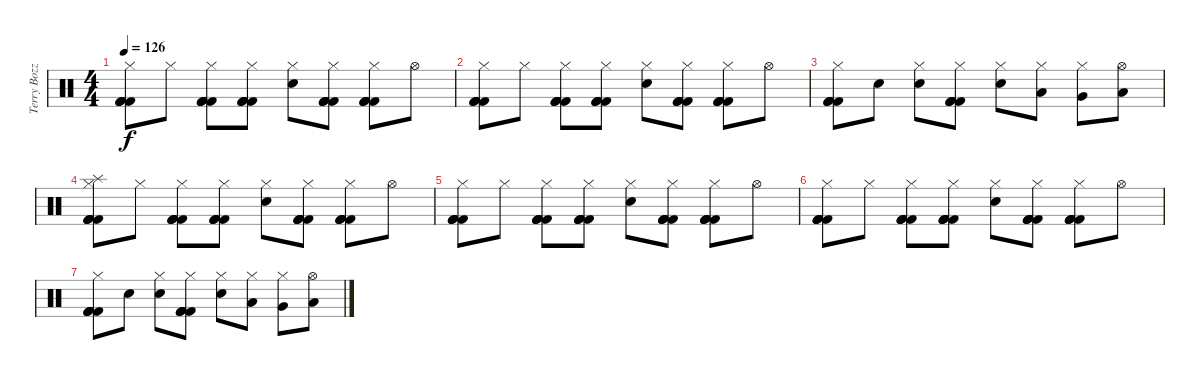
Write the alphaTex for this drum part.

\track ("Terry Bozzio" "Terry Bozz") {instrument percussion}
\staff {score}
\articulation defaults
\ts (4 4)
\tempo 126
\clef neutral
\ks c
("Hi-Hat (closed)" "Kick (hit) 2" "Kick (hit) 2" "Kick (hit) 2" "Kick (hit) 2").8{dy f} "Hi-Hat (closed)".8 ("Hi-Hat (closed)" "Kick (hit) 2" "Kick (hit) 2" "Kick (hit) 2" "Kick (hit) 2").8 ("Hi-Hat (closed)" "Kick (hit) 2" "Kick (hit) 2" "Kick (hit) 2" "Kick (hit) 2").8 ("Hi-Hat (closed)" "Snare (hit) 2").8 ("Hi-Hat (closed)" "Kick (hit) 2" "Kick (hit) 2" "Kick (hit) 2" "Kick (hit) 2").8 ("Hi-Hat (closed)" "Kick (hit) 2" "Kick (hit) 2" "Kick (hit) 2" "Kick (hit) 2").8 "Hi-Hat (open)".8 |
("Hi-Hat (closed)" "Kick (hit) 2" "Kick (hit) 2" "Kick (hit) 2" "Kick (hit) 2").8 "Hi-Hat (closed)".8 ("Hi-Hat (closed)" "Kick (hit) 2" "Kick (hit) 2" "Kick (hit) 2" "Kick (hit) 2").8 ("Hi-Hat (closed)" "Kick (hit) 2" "Kick (hit) 2" "Kick (hit) 2" "Kick (hit) 2").8 ("Hi-Hat (closed)" "Snare (hit) 2").8 ("Hi-Hat (closed)" "Kick (hit) 2" "Kick (hit) 2" "Kick (hit) 2" "Kick (hit) 2").8 ("Hi-Hat (closed)" "Kick (hit) 2" "Kick (hit) 2" "Kick (hit) 2" "Kick (hit) 2").8 "Hi-Hat (open)".8 |
("Hi-Hat (closed)" "Kick (hit) 2" "Kick (hit) 2" "Kick (hit) 2" "Kick (hit) 2").8 "Snare (hit) 2".8 ("Hi-Hat (closed)" "Snare (hit) 2").8 ("Hi-Hat (closed)" "Kick (hit) 2" "Kick (hit) 2" "Kick (hit) 2" "Kick (hit) 2").8 ("Hi-Hat (closed)" "Snare (hit) 2").8 ("Hi-Hat (closed)" "Low Tom (hit)").8 ("Hi-Hat (closed)" "Very Low Tom (hit)").8 ("Hi-Hat (open)" "Low Floor Tom (hit)").8 |
("Splash (hit)" "Hi-Hat (closed)" "Kick (hit) 2" "Kick (hit) 2" "Kick (hit) 2" "Kick (hit) 2").8{volume 16} "Hi-Hat (closed)".8 ("Hi-Hat (closed)" "Kick (hit) 2" "Kick (hit) 2" "Kick (hit) 2" "Kick (hit) 2").8 ("Hi-Hat (closed)" "Kick (hit) 2" "Kick (hit) 2" "Kick (hit) 2" "Kick (hit) 2").8 ("Hi-Hat (closed)" "Snare (hit) 2").8 ("Hi-Hat (closed)" "Kick (hit) 2" "Kick (hit) 2" "Kick (hit) 2" "Kick (hit) 2").8 ("Hi-Hat (closed)" "Kick (hit) 2" "Kick (hit) 2" "Kick (hit) 2" "Kick (hit) 2").8 "Hi-Hat (open)".8 |
("Hi-Hat (closed)" "Kick (hit) 2" "Kick (hit) 2" "Kick (hit) 2" "Kick (hit) 2").8 "Hi-Hat (closed)".8 ("Hi-Hat (closed)" "Kick (hit) 2" "Kick (hit) 2" "Kick (hit) 2" "Kick (hit) 2").8 ("Hi-Hat (closed)" "Kick (hit) 2" "Kick (hit) 2" "Kick (hit) 2" "Kick (hit) 2").8 ("Hi-Hat (closed)" "Snare (hit) 2").8 ("Hi-Hat (closed)" "Kick (hit) 2" "Kick (hit) 2" "Kick (hit) 2" "Kick (hit) 2").8 ("Hi-Hat (closed)" "Kick (hit) 2" "Kick (hit) 2" "Kick (hit) 2" "Kick (hit) 2").8 "Hi-Hat (open)".8 |
("Hi-Hat (closed)" "Kick (hit) 2" "Kick (hit) 2" "Kick (hit) 2" "Kick (hit) 2").8 "Hi-Hat (closed)".8 ("Hi-Hat (closed)" "Kick (hit) 2" "Kick (hit) 2" "Kick (hit) 2" "Kick (hit) 2").8 ("Hi-Hat (closed)" "Kick (hit) 2" "Kick (hit) 2" "Kick (hit) 2" "Kick (hit) 2").8 ("Hi-Hat (closed)" "Snare (hit) 2").8 ("Hi-Hat (closed)" "Kick (hit) 2" "Kick (hit) 2" "Kick (hit) 2" "Kick (hit) 2").8 ("Hi-Hat (closed)" "Kick (hit) 2" "Kick (hit) 2" "Kick (hit) 2" "Kick (hit) 2").8 "Hi-Hat (open)".8 |
("Hi-Hat (closed)" "Kick (hit) 2" "Kick (hit) 2" "Kick (hit) 2" "Kick (hit) 2").8 "Snare (hit) 2".8 ("Hi-Hat (closed)" "Snare (hit) 2").8 ("Hi-Hat (closed)" "Kick (hit) 2" "Kick (hit) 2" "Kick (hit) 2" "Kick (hit) 2").8 ("Hi-Hat (closed)" "Snare (hit) 2").8 ("Hi-Hat (closed)" "Low Tom (hit)").8 ("Hi-Hat (closed)" "Very Low Tom (hit)").8 ("Hi-Hat (open)" "Low Floor Tom (hit)").8
